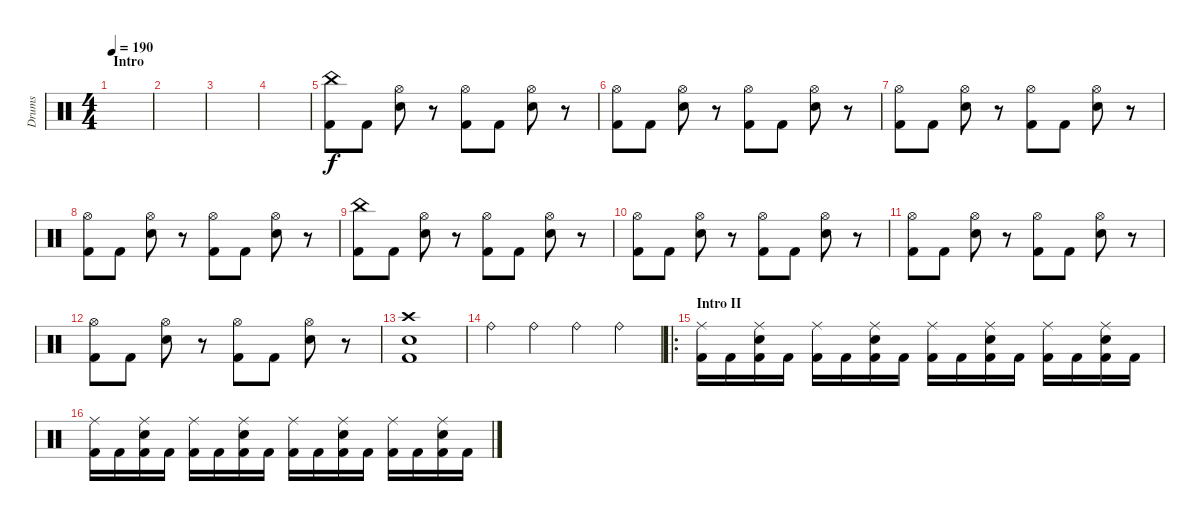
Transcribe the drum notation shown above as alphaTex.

\track ("Drums" "Drums") {instrument percussion}
\staff {score}
\articulation defaults
\ts (4 4)
\section ("" "Intro")
\tempo 190
\clef neutral
\ks c
|
|
|
|
("China (hit)" "Kick (hit) 2").8 "Kick (hit) 2".8 ("Hi-Hat (open)" "Electric Snare (hit)").8 r.8 ("Hi-Hat (open)" "Kick (hit) 2").8 "Kick (hit) 2".8 ("Hi-Hat (open)" "Electric Snare (hit)").8 r.8 |
("Hi-Hat (open)" "Kick (hit) 2").8 "Kick (hit) 2".8 ("Hi-Hat (open)" "Electric Snare (hit)").8 r.8 ("Hi-Hat (open)" "Kick (hit) 2").8 "Kick (hit) 2".8 ("Hi-Hat (open)" "Electric Snare (hit)").8 r.8 |
("Hi-Hat (open)" "Kick (hit) 2").8 "Kick (hit) 2".8 ("Hi-Hat (open)" "Electric Snare (hit)").8 r.8 ("Hi-Hat (open)" "Kick (hit) 2").8 "Kick (hit) 2".8 ("Hi-Hat (open)" "Electric Snare (hit)").8 r.8 |
("Hi-Hat (open)" "Kick (hit) 2").8 "Kick (hit) 2".8 ("Hi-Hat (open)" "Electric Snare (hit)").8 r.8 ("Hi-Hat (open)" "Kick (hit) 2").8 "Kick (hit) 2".8 ("Hi-Hat (open)" "Electric Snare (hit)").8 r.8 |
("China (hit)" "Kick (hit) 2").8 "Kick (hit) 2".8 ("Hi-Hat (open)" "Electric Snare (hit)").8 r.8 ("Hi-Hat (open)" "Kick (hit) 2").8 "Kick (hit) 2".8 ("Hi-Hat (open)" "Electric Snare (hit)").8 r.8 |
("Hi-Hat (open)" "Kick (hit) 2").8 "Kick (hit) 2".8 ("Hi-Hat (open)" "Electric Snare (hit)").8 r.8 ("Hi-Hat (open)" "Kick (hit) 2").8 "Kick (hit) 2".8 ("Hi-Hat (open)" "Electric Snare (hit)").8 r.8 |
("Hi-Hat (open)" "Kick (hit) 2").8 "Kick (hit) 2".8 ("Hi-Hat (open)" "Electric Snare (hit)").8 r.8 ("Hi-Hat (open)" "Kick (hit) 2").8 "Kick (hit) 2".8 ("Hi-Hat (open)" "Electric Snare (hit)").8 r.8 |
("Hi-Hat (open)" "Kick (hit) 2").8 "Kick (hit) 2".8 ("Hi-Hat (open)" "Electric Snare (hit)").8 r.8 ("Hi-Hat (open)" "Kick (hit) 2").8 "Kick (hit) 2".8 ("Hi-Hat (open)" "Electric Snare (hit)").8 r.8 |
("Crash high (hit)" "Kick (hit) 2" "Electric Snare (hit)").1 |
"Ride (bell)".4 "Ride (bell)".4 "Ride (bell)".4 "Ride (bell)".4 |
\ro
\section ("" "Intro II")
("Kick (hit) 2" "Ride (middle)").16 "Kick (hit) 2".16 ("Kick (hit) 2" "Ride (middle)" "Electric Snare (hit)").16 "Kick (hit) 2".16 ("Kick (hit) 2" "Ride (middle)").16 "Kick (hit) 2".16 ("Kick (hit) 2" "Ride (middle)" "Electric Snare (hit)").16 "Kick (hit) 2".16 ("Kick (hit) 2" "Ride (middle)").16 "Kick (hit) 2".16 ("Kick (hit) 2" "Ride (middle)" "Electric Snare (hit)").16 "Kick (hit) 2".16 ("Kick (hit) 2" "Ride (middle)").16 "Kick (hit) 2".16 ("Kick (hit) 2" "Ride (middle)" "Electric Snare (hit)").16 "Kick (hit) 2".16 |
("Kick (hit) 2" "Ride (middle)").16 "Kick (hit) 2".16 ("Kick (hit) 2" "Ride (middle)" "Electric Snare (hit)").16 "Kick (hit) 2".16 ("Kick (hit) 2" "Ride (middle)").16 "Kick (hit) 2".16 ("Kick (hit) 2" "Ride (middle)" "Electric Snare (hit)").16 "Kick (hit) 2".16 ("Kick (hit) 2" "Ride (middle)").16 "Kick (hit) 2".16 ("Kick (hit) 2" "Ride (middle)" "Electric Snare (hit)").16 "Kick (hit) 2".16 ("Kick (hit) 2" "Ride (middle)").16 "Kick (hit) 2".16 ("Kick (hit) 2" "Ride (middle)" "Electric Snare (hit)").16 "Kick (hit) 2".16
